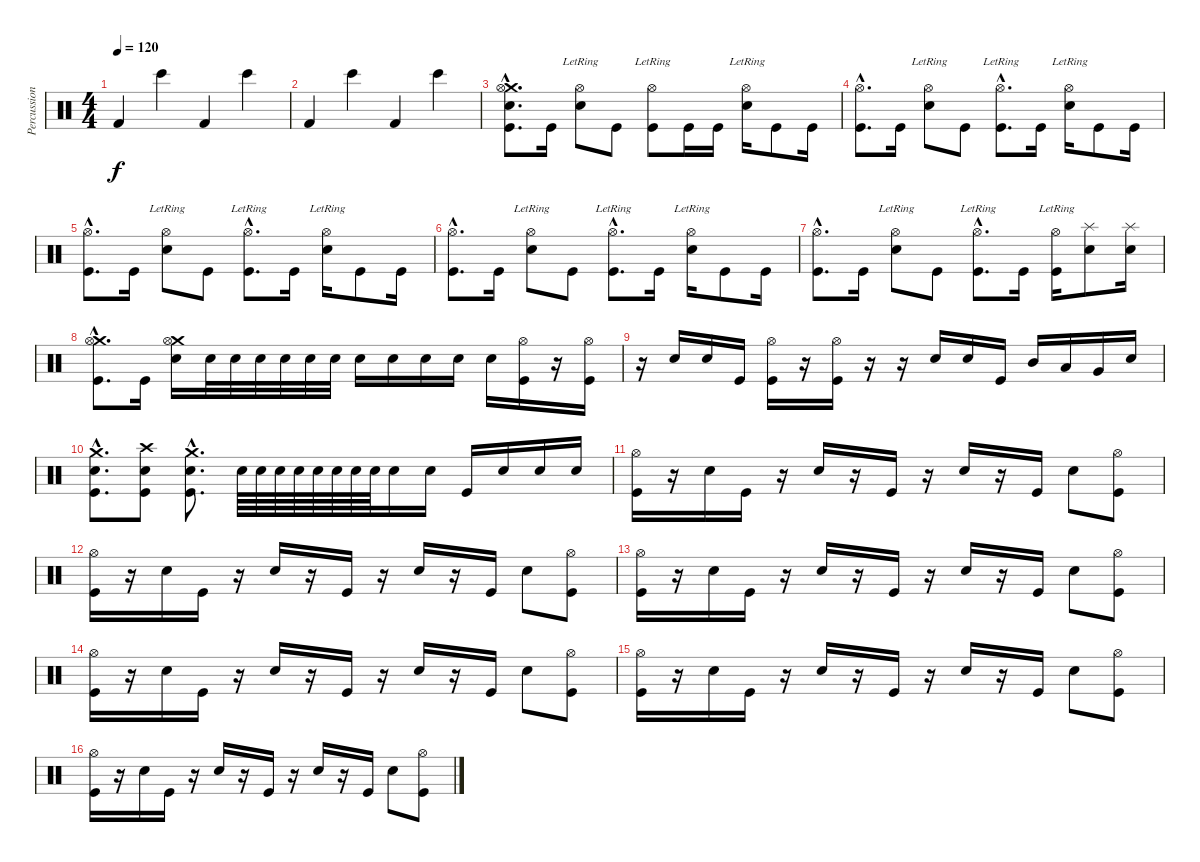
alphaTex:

\track ("Percussions" "Percussion") {instrument percussion}
\staff {score}
\articulation defaults
\ts (4 4)
\tempo 120
\clef neutral
\ks c "Kick (hit) 2".4{dy f} "Bongo High (hit)".4 "Kick (hit) 2".4 "Bongo High (hit)".4
|
"Kick (hit) 2".4 "Bongo High (hit)".4 "Kick (hit) 2".4 "Bongo High (hit)".4 |
("Crash medium (hit)"{hac} "Hi-Hat (open)"{hac} "Snare (hit) 2"{hac} "Kick (hit)"{hac}).8{d} "Kick (hit)".16 ("Hi-Hat (open)"{lr} "Snare (hit) 2").8 "Kick (hit)".8 ("Hi-Hat (open)"{lr} "Kick (hit)").8 "Kick (hit)".16 "Kick (hit)".16 ("Hi-Hat (open)"{lr} "Snare (hit) 2").16 "Kick (hit)".8 "Kick (hit)".16 |
("Hi-Hat (open)"{hac} "Kick (hit)"{hac}).8{d} "Kick (hit)".16 ("Hi-Hat (open)"{lr} "Snare (hit) 2").8 "Kick (hit)".8 ("Hi-Hat (open)"{hac lr} "Kick (hit)"{hac}).8{d} "Kick (hit)".16 ("Hi-Hat (open)"{lr} "Snare (hit) 2").16 "Kick (hit)".8 "Kick (hit)".16 |
("Hi-Hat (open)"{hac} "Kick (hit)"{hac}).8{d} "Kick (hit)".16 ("Hi-Hat (open)"{lr} "Snare (hit) 2").8 "Kick (hit)".8 ("Hi-Hat (open)"{hac lr} "Kick (hit)"{hac}).8{d} "Kick (hit)".16 ("Hi-Hat (open)"{lr} "Snare (hit) 2").16 "Kick (hit)".8 "Kick (hit)".16 |
("Hi-Hat (open)"{hac} "Kick (hit)"{hac}).8{d} "Kick (hit)".16 ("Hi-Hat (open)"{lr} "Snare (hit) 2").8 "Kick (hit)".8 ("Hi-Hat (open)"{hac lr} "Kick (hit)"{hac}).8{d} "Kick (hit)".16 ("Hi-Hat (open)"{lr} "Snare (hit) 2").16 "Kick (hit)".8 "Kick (hit)".16 |
("Hi-Hat (open)"{hac} "Kick (hit)"{hac}).8{d} "Kick (hit)".16 ("Hi-Hat (open)"{lr} "Snare (hit) 2").8 "Kick (hit)".8 ("Hi-Hat (open)"{hac lr} "Kick (hit)"{hac}).8{d} "Kick (hit)".16 ("Hi-Hat (open)"{lr} "Kick (hit)").16 ("Splash (hit)" "Snare (hit) 2").8 ("Splash (hit)" "Snare (hit) 2").16 |
("Crash medium (hit)"{hac} "Hi-Hat (open)"{hac} "Kick (hit)"{hac}).8{d} "Kick (hit)".16 ("Crash medium (hit)" "Hi-Hat (open)" "Snare (hit) 2").16 "Snare (hit) 2".32 "Snare (hit) 2".32 "Snare (hit) 2".32 "Snare (hit) 2".32 "Snare (hit) 2".32 "Snare (hit) 2".32 "Snare (hit) 2".16 "Snare (hit) 2".16 "Snare (hit) 2".16 "Snare (hit) 2".16 "Snare (hit) 2".16 ("Hi-Hat (open)" "Kick (hit)").16 r.16 ("Hi-Hat (open)" "Kick (hit)").16 |
r.16 "Snare (hit) 2".16 "Snare (hit) 2".16 "Kick (hit)".16 ("Hi-Hat (open)" "Kick (hit)").16 r.16 ("Hi-Hat (open)" "Kick (hit)").16 r.16 r.16 "Snare (hit) 2".16 "Snare (hit) 2".16 "Kick (hit)".16 "Mid Tom (hit)".16 "Low Tom (hit)".16 "Very Low Tom (hit)".16 "Snare (hit) 2".16 |
("Crash medium (hit)"{hac} "Snare (hit) 2"{hac} "Kick (hit)"{hac}).8{d} ("Crash high (hit)" "Snare (hit) 2" "Kick (hit)").8 ("Crash medium (hit)"{hac} "Snare (hit) 2"{hac} "Kick (hit)"{hac}).8{d} "Snare (hit) 2".64 "Snare (hit) 2".64 "Snare (hit) 2".64 "Snare (hit) 2".64 "Snare (hit) 2".64 "Snare (hit) 2".64 "Snare (hit) 2".64 "Snare (hit) 2".64 "Snare (hit) 2".16 "Snare (hit) 2".16 "Kick (hit)".16 "Snare (hit) 2".16 "Snare (hit) 2".16 "Snare (hit) 2".16 |
("Hi-Hat (open)" "Kick (hit)").16 r.16 "Snare (hit) 2".16 "Kick (hit)".16 r.16 "Snare (hit) 2".16 r.16 "Kick (hit)".16 r.16 "Snare (hit) 2".16 r.16 "Kick (hit)".16 "Snare (hit) 2".8 ("Hi-Hat (open)" "Kick (hit)").8 |
("Hi-Hat (open)" "Kick (hit)").16 r.16 "Snare (hit) 2".16 "Kick (hit)".16 r.16 "Snare (hit) 2".16 r.16 "Kick (hit)".16 r.16 "Snare (hit) 2".16 r.16 "Kick (hit)".16 "Snare (hit) 2".8 ("Hi-Hat (open)" "Kick (hit)").8 |
("Hi-Hat (open)" "Kick (hit)").16 r.16 "Snare (hit) 2".16 "Kick (hit)".16 r.16 "Snare (hit) 2".16 r.16 "Kick (hit)".16 r.16 "Snare (hit) 2".16 r.16 "Kick (hit)".16 "Snare (hit) 2".8 ("Hi-Hat (open)" "Kick (hit)").8 |
("Hi-Hat (open)" "Kick (hit)").16 r.16 "Snare (hit) 2".16 "Kick (hit)".16 r.16 "Snare (hit) 2".16 r.16 "Kick (hit)".16 r.16 "Snare (hit) 2".16 r.16 "Kick (hit)".16 "Snare (hit) 2".8 ("Hi-Hat (open)" "Kick (hit)").8 |
("Hi-Hat (open)" "Kick (hit)").16 r.16 "Snare (hit) 2".16 "Kick (hit)".16 r.16 "Snare (hit) 2".16 r.16 "Kick (hit)".16 r.16 "Snare (hit) 2".16 r.16 "Kick (hit)".16 "Snare (hit) 2".8 ("Hi-Hat (open)" "Kick (hit)").8 |
("Hi-Hat (open)" "Kick (hit)").16 r.16 "Snare (hit) 2".16 "Kick (hit)".16 r.16 "Snare (hit) 2".16 r.16 "Kick (hit)".16 r.16 "Snare (hit) 2".16 r.16 "Kick (hit)".16 "Snare (hit) 2".8 ("Hi-Hat (open)" "Kick (hit)").8
